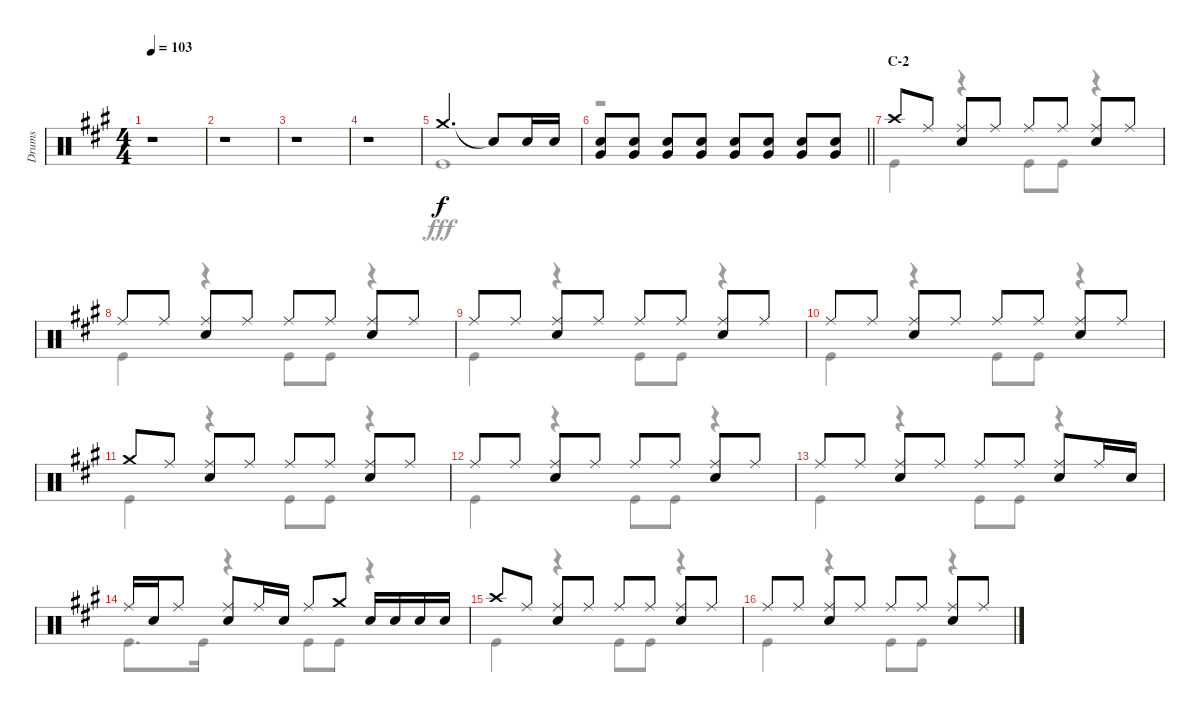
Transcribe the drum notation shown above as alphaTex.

\track ("Drums" "Drums") {instrument percussion}
\staff {score}
\articulation defaults
\voice
\ts (4 4)
\tempo 103
\clef neutral
\ks a
r.1{dy f} |
r.1 |
r.1 |
r.1 |
"Crash medium (hit)".2{d} "Snare (hit)"{t}.8 "Snare (hit) 2".16 "Snare (hit) 2".16 |
\barLineRight lightlight
("Snare (hit) 2" "Very Low Tom (hit)").8 ("Snare (hit) 2" "Very Low Tom (hit)").8 ("Snare (hit) 2" "Very Low Tom (hit)").8 ("Snare (hit) 2" "Very Low Tom (hit)").8 ("Snare (hit) 2" "Very Low Tom (hit)").8 ("Snare (hit) 2" "Very Low Tom (hit)").8 ("Snare (hit) 2" "Very Low Tom (hit)").8 ("Snare (hit) 2" "Very Low Tom (hit)").8 |
\section ("" "C-2")
"Crash high (hit)".8 "Ride (middle)".8 ("Ride (middle)" "Snare (hit) 2").8 "Ride (middle)".8 "Ride (middle)".8 "Ride (middle)".8 ("Ride (middle)" "Snare (hit) 2").8 "Ride (middle)".8 |
"Ride (middle)".8 "Ride (middle)".8 ("Ride (middle)" "Snare (hit) 2").8 "Ride (middle)".8 "Ride (middle)".8 "Ride (middle)".8 ("Ride (middle)" "Snare (hit) 2").8 "Ride (middle)".8 |
"Ride (middle)".8 "Ride (middle)".8 ("Ride (middle)" "Snare (hit) 2").8 "Ride (middle)".8 "Ride (middle)".8 "Ride (middle)".8 ("Ride (middle)" "Snare (hit) 2").8 "Ride (middle)".8 |
"Ride (middle)".8 "Ride (middle)".8 ("Ride (middle)" "Snare (hit) 2").8 "Ride (middle)".8 "Ride (middle)".8 "Ride (middle)".8 ("Ride (middle)" "Snare (hit) 2").8 "Ride (middle)".8 |
"Crash medium (hit)".8 "Ride (middle)".8 ("Ride (middle)" "Snare (hit) 2").8 "Ride (middle)".8 "Ride (middle)".8 "Ride (middle)".8 ("Ride (middle)" "Snare (hit) 2").8 "Ride (middle)".8 |
"Ride (middle)".8 "Ride (middle)".8 ("Ride (middle)" "Snare (hit) 2").8 "Ride (middle)".8 "Ride (middle)".8 "Ride (middle)".8 ("Ride (middle)" "Snare (hit) 2").8 "Ride (middle)".8 |
"Ride (middle)".8 "Ride (middle)".8 ("Ride (middle)" "Snare (hit) 2").8 "Ride (middle)".8 "Ride (middle)".8 "Ride (middle)".8 ("Ride (middle)" "Snare (hit) 2").8 "Ride (middle)".16 "Snare (hit) 2".16 |
"Ride (middle)".16 "Snare (hit) 2".16 "Ride (middle)".8 ("Ride (middle)" "Snare (hit) 2").8 "Ride (middle)".16 "Snare (hit) 2".16 "Ride (middle)".8 "Crash medium (hit)".8 "Snare (hit) 2".16 "Snare (hit) 2".16 "Snare (hit) 2".16 "Snare (hit) 2".16 |
"Crash high (hit)".8 "Ride (middle)".8 ("Ride (middle)" "Snare (hit) 2").8 "Ride (middle)".8 "Ride (middle)".8 "Ride (middle)".8 ("Ride (middle)" "Snare (hit) 2").8 "Ride (middle)".8 |
"Ride (middle)".8 "Ride (middle)".8 ("Ride (middle)" "Snare (hit) 2").8 "Ride (middle)".8 "Ride (middle)".8 "Ride (middle)".8 ("Ride (middle)" "Snare (hit) 2").8 "Ride (middle)".8
\voice
\clef neutral
\ottava regular
\simile none
\ks a
r.1{dy fff} |
r.1 |
r.1 |
r.1 |
"Kick (hit)".1 |
\barLineRight lightlight
r.1 |
"Kick (hit)".4 r.4 "Kick (hit)".8 "Kick (hit)".8 r.4 |
"Kick (hit)".4 r.4 "Kick (hit)".8 "Kick (hit)".8 r.4 |
"Kick (hit)".4 r.4 "Kick (hit)".8 "Kick (hit)".8 r.4 |
"Kick (hit)".4 r.4 "Kick (hit)".8 "Kick (hit)".8 r.4 |
"Kick (hit)".4 r.4 "Kick (hit)".8 "Kick (hit)".8 r.4 |
"Kick (hit)".4 r.4 "Kick (hit)".8 "Kick (hit)".8 r.4 |
"Kick (hit)".4 r.4 "Kick (hit)".8 "Kick (hit)".8 r.4 |
"Kick (hit)".8{d} "Kick (hit)".16 r.4 "Kick (hit)".8 "Kick (hit)".8 r.4 |
"Kick (hit)".4 r.4 "Kick (hit)".8 "Kick (hit)".8 r.4 |
"Kick (hit)".4 r.4 "Kick (hit)".8 "Kick (hit)".8 r.4
